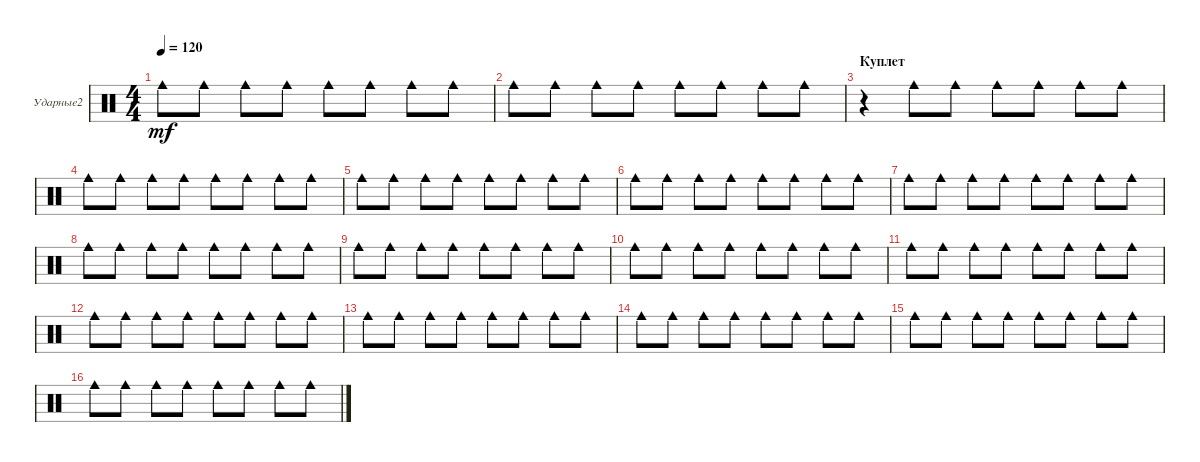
\defaultSystemsLayout 4
\bracketExtendMode groupsimilarinstruments
\firstSystemTrackNameOrientation horizontal
\otherSystemsTrackNameOrientation horizontal
\track ("Е.Кулаков" "Ударные2") {instrument percussion}
\staff {score}
\articulation defaults
\ts (4 4)
\tempo 120
\clef neutral
\ks c "Cowbell medium (hit)".8{dy mf} "Cowbell medium (hit)".8 "Cowbell medium (hit)".8 "Cowbell medium (hit)".8 "Cowbell medium (hit)".8 "Cowbell medium (hit)".8 "Cowbell medium (hit)".8 "Cowbell medium (hit)".8
|
"Cowbell medium (hit)".8 "Cowbell medium (hit)".8 "Cowbell medium (hit)".8 "Cowbell medium (hit)".8 "Cowbell medium (hit)".8 "Cowbell medium (hit)".8 "Cowbell medium (hit)".8 "Cowbell medium (hit)".8 |
\section ("" "Куплет")
r.4 "Cowbell medium (hit)".8 "Cowbell medium (hit)".8 "Cowbell medium (hit)".8 "Cowbell medium (hit)".8 "Cowbell medium (hit)".8 "Cowbell medium (hit)".8 |
"Cowbell medium (hit)".8 "Cowbell medium (hit)".8 "Cowbell medium (hit)".8 "Cowbell medium (hit)".8 "Cowbell medium (hit)".8 "Cowbell medium (hit)".8 "Cowbell medium (hit)".8 "Cowbell medium (hit)".8 |
"Cowbell medium (hit)".8 "Cowbell medium (hit)".8 "Cowbell medium (hit)".8 "Cowbell medium (hit)".8 "Cowbell medium (hit)".8 "Cowbell medium (hit)".8 "Cowbell medium (hit)".8 "Cowbell medium (hit)".8 |
"Cowbell medium (hit)".8 "Cowbell medium (hit)".8 "Cowbell medium (hit)".8 "Cowbell medium (hit)".8 "Cowbell medium (hit)".8 "Cowbell medium (hit)".8 "Cowbell medium (hit)".8 "Cowbell medium (hit)".8 |
"Cowbell medium (hit)".8 "Cowbell medium (hit)".8 "Cowbell medium (hit)".8 "Cowbell medium (hit)".8 "Cowbell medium (hit)".8 "Cowbell medium (hit)".8 "Cowbell medium (hit)".8 "Cowbell medium (hit)".8 |
"Cowbell medium (hit)".8 "Cowbell medium (hit)".8 "Cowbell medium (hit)".8 "Cowbell medium (hit)".8 "Cowbell medium (hit)".8 "Cowbell medium (hit)".8 "Cowbell medium (hit)".8 "Cowbell medium (hit)".8 |
"Cowbell medium (hit)".8 "Cowbell medium (hit)".8 "Cowbell medium (hit)".8 "Cowbell medium (hit)".8 "Cowbell medium (hit)".8 "Cowbell medium (hit)".8 "Cowbell medium (hit)".8 "Cowbell medium (hit)".8 |
"Cowbell medium (hit)".8 "Cowbell medium (hit)".8 "Cowbell medium (hit)".8 "Cowbell medium (hit)".8 "Cowbell medium (hit)".8 "Cowbell medium (hit)".8 "Cowbell medium (hit)".8 "Cowbell medium (hit)".8 |
"Cowbell medium (hit)".8 "Cowbell medium (hit)".8 "Cowbell medium (hit)".8 "Cowbell medium (hit)".8 "Cowbell medium (hit)".8 "Cowbell medium (hit)".8 "Cowbell medium (hit)".8 "Cowbell medium (hit)".8 |
"Cowbell medium (hit)".8 "Cowbell medium (hit)".8 "Cowbell medium (hit)".8 "Cowbell medium (hit)".8 "Cowbell medium (hit)".8 "Cowbell medium (hit)".8 "Cowbell medium (hit)".8 "Cowbell medium (hit)".8 |
"Cowbell medium (hit)".8 "Cowbell medium (hit)".8 "Cowbell medium (hit)".8 "Cowbell medium (hit)".8 "Cowbell medium (hit)".8 "Cowbell medium (hit)".8 "Cowbell medium (hit)".8 "Cowbell medium (hit)".8 |
"Cowbell medium (hit)".8 "Cowbell medium (hit)".8 "Cowbell medium (hit)".8 "Cowbell medium (hit)".8 "Cowbell medium (hit)".8 "Cowbell medium (hit)".8 "Cowbell medium (hit)".8 "Cowbell medium (hit)".8 |
"Cowbell medium (hit)".8 "Cowbell medium (hit)".8 "Cowbell medium (hit)".8 "Cowbell medium (hit)".8 "Cowbell medium (hit)".8 "Cowbell medium (hit)".8 "Cowbell medium (hit)".8 "Cowbell medium (hit)".8 |
"Cowbell medium (hit)".8 "Cowbell medium (hit)".8 "Cowbell medium (hit)".8 "Cowbell medium (hit)".8 "Cowbell medium (hit)".8 "Cowbell medium (hit)".8 "Cowbell medium (hit)".8 "Cowbell medium (hit)".8
